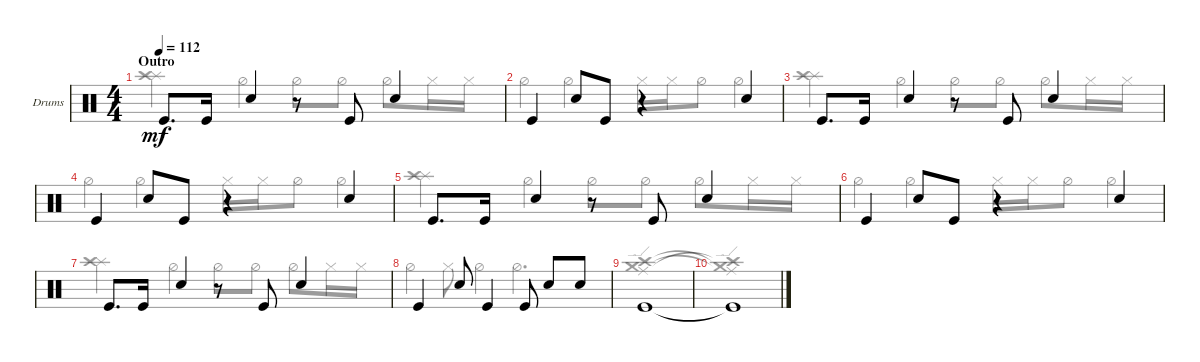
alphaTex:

\defaultSystemsLayout 4
\bracketExtendMode groupsimilarinstruments
\firstSystemTrackNameOrientation horizontal
\otherSystemsTrackNameOrientation horizontal
\track ("Drumkit" "Drums") {multiBarRest instrument percussion}
\staff {score}
\articulation defaults
\voice
\ts (4 4)
\section ("" "Outro")
\tempo 112
\clef neutral
\ks c "Kick (hit)".8{d dy mf} "Kick (hit)".16 "Snare (hit) 2".4
r.8 "Kick (hit)".8 "Snare (hit) 2".4 |
"Kick (hit)".4 "Snare (hit) 2".8 "Kick (hit)".8 r.4 "Snare (hit) 2".4 |
"Kick (hit)".8{d} "Kick (hit)".16 "Snare (hit) 2".4 r.8 "Kick (hit)".8 "Snare (hit) 2".4 |
"Kick (hit)".4 "Snare (hit) 2".8 "Kick (hit)".8 r.4 "Snare (hit) 2".4 |
"Kick (hit)".8{d} "Kick (hit)".16 "Snare (hit) 2".4 r.8 "Kick (hit)".8 "Snare (hit) 2".4 |
"Kick (hit)".4 "Snare (hit) 2".8 "Kick (hit)".8 r.4 "Snare (hit) 2".4 |
"Kick (hit)".8{d} "Kick (hit)".16 "Snare (hit) 2".4 r.8 "Kick (hit)".8 "Snare (hit) 2".4 |
"Kick (hit)".4 "Snare (hit) 2".8 "Kick (hit)".4 "Kick (hit)".8 "Snare (hit) 2".8 "Snare (hit) 2".8 |
"Kick (hit)".1 |
"Kick (hit)"{t}.1
\voice
\clef neutral
\ottava regular
\simile none
\ks c
("Splash (hit)" "Crash high (hit)").4{dy mf} "Hi-Hat (half)".4 "Hi-Hat (half)".8 "Hi-Hat (half)".8 "Hi-Hat (half)".8 "Hi-Hat (closed)".16 "Hi-Hat (closed)".16 |
"Hi-Hat (half)".4 "Hi-Hat (half)".4 "Hi-Hat (closed)".16 "Hi-Hat (closed)".16 "Hi-Hat (half)".8 "Hi-Hat (half)".4 |
("Splash (hit)" "Crash high (hit)").4 "Hi-Hat (half)".4 "Hi-Hat (half)".8 "Hi-Hat (half)".8 "Hi-Hat (half)".8 "Hi-Hat (closed)".16 "Hi-Hat (closed)".16 |
"Hi-Hat (half)".4 "Hi-Hat (half)".4 "Hi-Hat (closed)".16 "Hi-Hat (closed)".16 "Hi-Hat (half)".8 "Hi-Hat (half)".4 |
("Splash (hit)" "Crash high (hit)").4 "Hi-Hat (half)".4 "Hi-Hat (half)".8 "Hi-Hat (half)".8 "Hi-Hat (half)".8 "Hi-Hat (closed)".16 "Hi-Hat (closed)".16 |
"Hi-Hat (half)".4 "Hi-Hat (half)".4 "Hi-Hat (closed)".16 "Hi-Hat (closed)".16 "Hi-Hat (half)".8 "Hi-Hat (half)".4 |
("Splash (hit)" "Crash high (hit)").4 "Hi-Hat (half)".4 "Hi-Hat (half)".8 "Hi-Hat (half)".8 "Hi-Hat (half)".8 "Hi-Hat (closed)".16 "Hi-Hat (closed)".16 |
"Hi-Hat (half)".4 "Hi-Hat (closed)".8 "Hi-Hat (half)".4 "Hi-Hat (half)".4{d} |
("Crash high (hit)" "Ride (edge)" "Crash medium (hit)").1 |
("Crash medium (hit)"{t} "Crash high (hit)"{t} "Ride (edge)"{t}).1
